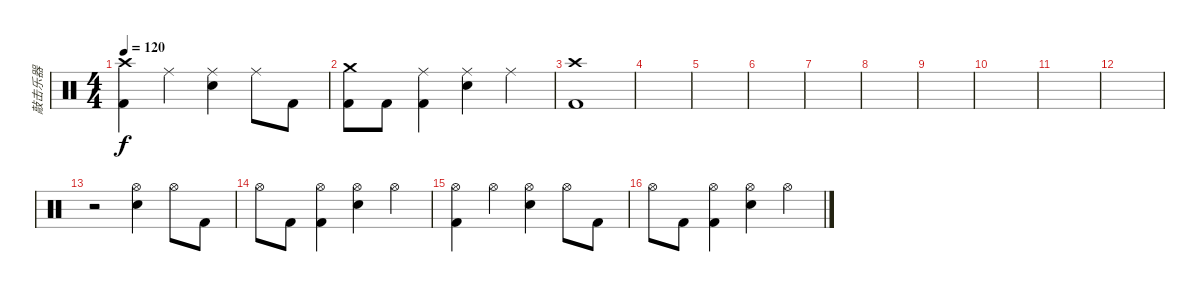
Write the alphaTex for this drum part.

\track ("敲击乐器" "敲击乐器") {instrument percussion}
\staff {score}
\articulation defaults
\ts (4 4)
\tempo 120
\clef neutral
\ks c
("Kick (hit) 2" "Crash high (hit)").4{dy f} "Ride (middle)".4 ("Snare (hit) 2" "Ride (middle)").4 "Ride (middle)".8 "Kick (hit) 2".8 |
("Kick (hit) 2" "Crash medium (hit)").8 "Kick (hit) 2".8 ("Kick (hit) 2" "Ride (middle)").4 ("Snare (hit) 2" "Ride (middle)").4 "Ride (middle)".4 |
("Crash high (hit)" "Kick (hit) 2").1 |
|
|
|
|
|
|
|
|
|
r.2 ("Hi-Hat (open)" "Snare (hit) 2").4 "Hi-Hat (open)".8 "Kick (hit) 2".8 |
"Hi-Hat (open)".8 "Kick (hit) 2".8 ("Hi-Hat (open)" "Kick (hit) 2").4 ("Hi-Hat (open)" "Snare (hit) 2").4 "Hi-Hat (open)".4 |
("Hi-Hat (open)" "Kick (hit) 2").4 "Hi-Hat (open)".4 ("Hi-Hat (open)" "Snare (hit) 2").4 "Hi-Hat (open)".8 "Kick (hit) 2".8 |
"Hi-Hat (open)".8 "Kick (hit) 2".8 ("Hi-Hat (open)" "Kick (hit) 2").4 ("Hi-Hat (open)" "Snare (hit) 2").4 "Hi-Hat (open)".4
